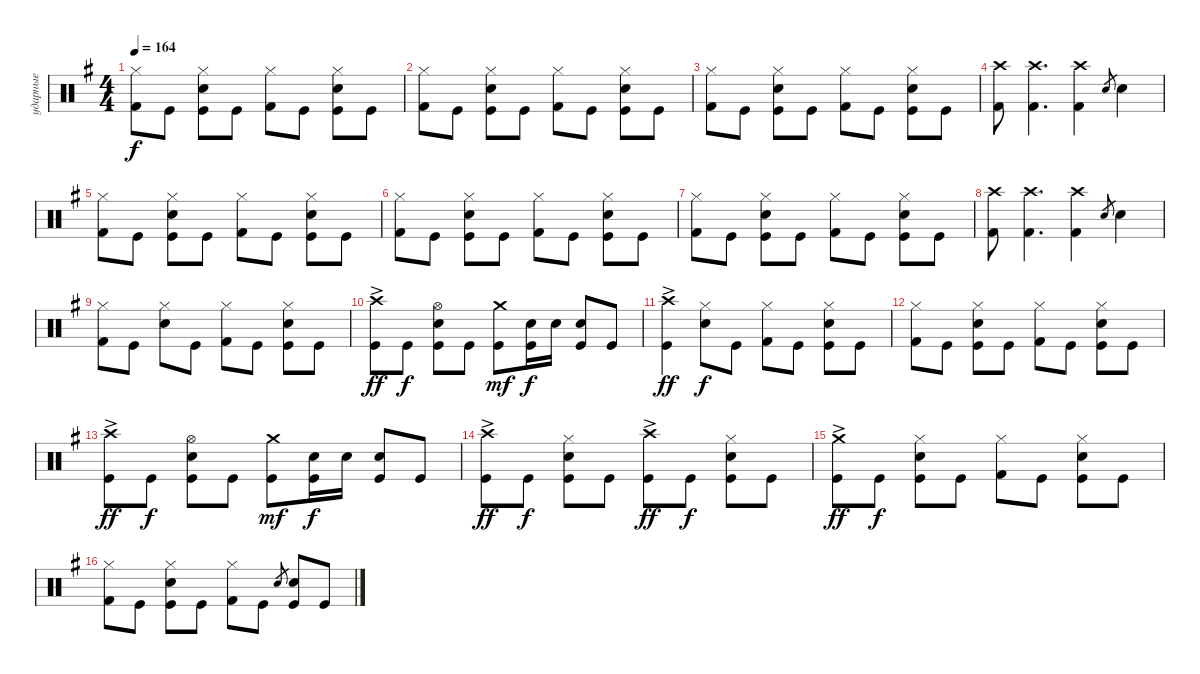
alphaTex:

\track ("ударные" "ударные") {instrument percussion}
\staff {score}
\articulation defaults
\ts (4 4)
\tempo 164
\clef neutral
\ks eminor
("Hi-Hat (closed)" "Kick (hit) 2").8{dy f} "Kick (hit)".8 ("Snare (hit) 2" "Hi-Hat (closed)" "Kick (hit)").8 "Kick (hit)".8 ("Hi-Hat (closed)" "Kick (hit) 2").8 "Kick (hit)".8 ("Hi-Hat (closed)" "Kick (hit)" "Snare (hit) 2").8 "Kick (hit)".8 |
("Hi-Hat (closed)" "Kick (hit) 2").8 "Kick (hit)".8 ("Snare (hit) 2" "Hi-Hat (closed)" "Kick (hit)").8 "Kick (hit)".8 ("Hi-Hat (closed)" "Kick (hit) 2").8 "Kick (hit)".8 ("Hi-Hat (closed)" "Kick (hit)" "Snare (hit) 2").8 "Kick (hit)".8 |
("Hi-Hat (closed)" "Kick (hit) 2").8 "Kick (hit)".8 ("Snare (hit) 2" "Hi-Hat (closed)" "Kick (hit)").8 "Kick (hit)".8 ("Hi-Hat (closed)" "Kick (hit) 2").8 "Kick (hit)".8 ("Hi-Hat (closed)" "Kick (hit)" "Snare (hit) 2").8 "Kick (hit)".8 |
("Crash high (hit)" "Kick (hit) 2").8 ("Crash high (hit)" "Kick (hit) 2").4{d} ("Crash high (hit)" "Kick (hit) 2").4 "Snare (hit) 2".8{gr} "Snare (hit) 2".4 |
("Hi-Hat (closed)" "Kick (hit) 2").8 "Kick (hit)".8 ("Snare (hit) 2" "Hi-Hat (closed)" "Kick (hit)").8 "Kick (hit)".8 ("Hi-Hat (closed)" "Kick (hit) 2").8 "Kick (hit)".8 ("Hi-Hat (closed)" "Kick (hit)" "Snare (hit) 2").8 "Kick (hit)".8 |
("Hi-Hat (closed)" "Kick (hit) 2").8 "Kick (hit)".8 ("Snare (hit) 2" "Hi-Hat (closed)" "Kick (hit)").8 "Kick (hit)".8 ("Hi-Hat (closed)" "Kick (hit) 2").8 "Kick (hit)".8 ("Hi-Hat (closed)" "Kick (hit)" "Snare (hit) 2").8 "Kick (hit)".8 |
("Hi-Hat (closed)" "Kick (hit) 2").8 "Kick (hit)".8 ("Snare (hit) 2" "Hi-Hat (closed)" "Kick (hit)").8 "Kick (hit)".8 ("Hi-Hat (closed)" "Kick (hit) 2").8 "Kick (hit)".8 ("Hi-Hat (closed)" "Kick (hit)" "Snare (hit) 2").8 "Kick (hit)".8 |
("Crash high (hit)" "Kick (hit) 2").8 ("Crash high (hit)" "Kick (hit) 2").4{d} ("Crash high (hit)" "Kick (hit) 2").4 "Snare (hit) 2".8{gr} "Snare (hit) 2".4 |
("Hi-Hat (closed)" "Kick (hit) 2").8 "Kick (hit)".8 ("Snare (hit) 2" "Hi-Hat (closed)").8 "Kick (hit)".8 ("Hi-Hat (closed)" "Kick (hit) 2").8 "Kick (hit)".8 ("Hi-Hat (closed)" "Kick (hit)" "Snare (hit) 2").8 "Kick (hit)".8 |
("Kick (hit)" "Crash high (hit)"{ac}).8{dy ff} "Kick (hit)".8{dy f} ("Snare (hit) 2" "Kick (hit)" "Hi-Hat (open)").8 "Kick (hit)".8 ("Crash medium (hit)" "Kick (hit)").8{dy mf} ("Kick (hit)" "Snare (hit) 2").16{dy f} "Snare (hit) 2".16 ("Kick (hit)" "Snare (hit) 2").8 "Kick (hit)".8 |
("Kick (hit)" "Crash high (hit)"{ac}).4{dy ff} ("Snare (hit) 2" "Hi-Hat (closed)").8{dy f} "Kick (hit)".8 ("Hi-Hat (closed)" "Kick (hit) 2").8 "Kick (hit)".8 ("Hi-Hat (closed)" "Kick (hit)" "Snare (hit) 2").8 "Kick (hit)".8 |
("Hi-Hat (closed)" "Kick (hit) 2").8 "Kick (hit)".8 ("Kick (hit)" "Snare (hit) 2" "Hi-Hat (closed)").8 "Kick (hit)".8 ("Hi-Hat (closed)" "Kick (hit) 2").8 "Kick (hit)".8 ("Hi-Hat (closed)" "Kick (hit)" "Snare (hit) 2").8 "Kick (hit)".8 |
("Kick (hit)" "Crash high (hit)"{ac}).8{dy ff} "Kick (hit)".8{dy f} ("Snare (hit) 2" "Kick (hit)" "Hi-Hat (open)").8 "Kick (hit)".8 ("Crash medium (hit)" "Kick (hit)").8{dy mf} ("Kick (hit)" "Snare (hit) 2").16{dy f} "Snare (hit) 2".16 ("Kick (hit)" "Snare (hit) 2").8 "Kick (hit)".8 |
("Kick (hit)" "Crash high (hit)"{ac}).8{dy ff} "Kick (hit)".8{dy f} ("Hi-Hat (closed)" "Kick (hit)" "Snare (hit) 2").8 "Kick (hit)".8 ("Kick (hit)" "Crash high (hit)"{ac}).8{dy ff} "Kick (hit)".8{dy f} ("Hi-Hat (closed)" "Kick (hit)" "Snare (hit) 2").8 "Kick (hit)".8 |
("Kick (hit)" "Crash medium (hit)"{ac}).8{dy ff} "Kick (hit)".8{dy f} ("Snare (hit) 2" "Hi-Hat (closed)" "Kick (hit)").8 "Kick (hit)".8 ("Hi-Hat (closed)" "Kick (hit) 2").8 "Kick (hit)".8 ("Hi-Hat (closed)" "Kick (hit)" "Snare (hit) 2").8 "Kick (hit)".8 |
("Hi-Hat (closed)" "Kick (hit) 2").8 "Kick (hit)".8 ("Kick (hit)" "Snare (hit) 2" "Hi-Hat (closed)").8 "Kick (hit)".8 ("Hi-Hat (closed)" "Kick (hit) 2").8 "Kick (hit)".8 "Snare (hit) 2".8{gr} ("Kick (hit)" "Snare (hit) 2").8 "Kick (hit)".8
